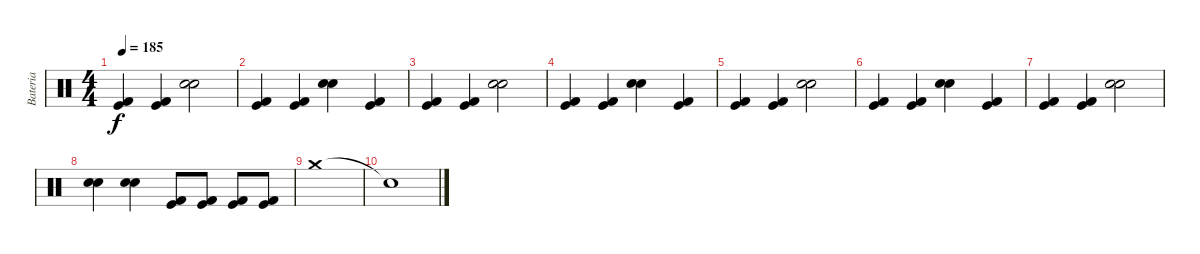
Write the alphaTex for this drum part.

\track ("Bateria" "Bateria") {instrument percussion}
\staff {score}
\articulation defaults
\ts (4 4)
\tempo 185
\clef neutral
\ks c
("Kick (hit) 2" "Kick (hit)").4{dy f} ("Kick (hit) 2" "Kick (hit)").4 ("Electric Snare (hit)" "Snare (hit) 2").2 |
("Kick (hit) 2" "Kick (hit)").4 ("Kick (hit) 2" "Kick (hit)").4 ("Electric Snare (hit)" "Snare (hit) 2").4 ("Kick (hit) 2" "Kick (hit)").4 |
("Kick (hit) 2" "Kick (hit)").4 ("Kick (hit) 2" "Kick (hit)").4 ("Electric Snare (hit)" "Snare (hit) 2").2 |
("Kick (hit) 2" "Kick (hit)").4 ("Kick (hit) 2" "Kick (hit)").4 ("Electric Snare (hit)" "Snare (hit) 2").4 ("Kick (hit) 2" "Kick (hit)").4 |
("Kick (hit) 2" "Kick (hit)").4 ("Kick (hit) 2" "Kick (hit)").4 ("Electric Snare (hit)" "Snare (hit) 2").2 |
("Kick (hit) 2" "Kick (hit)").4 ("Kick (hit) 2" "Kick (hit)").4 ("Electric Snare (hit)" "Snare (hit) 2").4 ("Kick (hit) 2" "Kick (hit)").4 |
("Kick (hit) 2" "Kick (hit)").4 ("Kick (hit) 2" "Kick (hit)").4 ("Electric Snare (hit)" "Snare (hit) 2").2 |
("Snare (hit) 2" "Electric Snare (hit)").4 ("Snare (hit) 2" "Electric Snare (hit)").4 ("Kick (hit) 2" "Kick (hit)").8 ("Kick (hit) 2" "Kick (hit)").8 ("Kick (hit) 2" "Kick (hit)").8 ("Kick (hit) 2" "Kick (hit)").8 |
"Crash medium (hit)".1 |
"Snare (hit)"{t}.1
